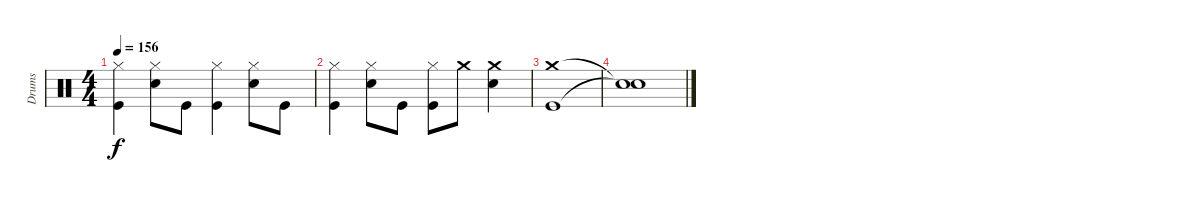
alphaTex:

\track ("Drums" "Drums") {instrument percussion}
\staff {score}
\articulation defaults
\ts (4 4)
\tempo 156
\clef neutral
\ks c
("Hi-Hat (closed)" "Kick (hit)").4{dy f} ("Hi-Hat (closed)" "Snare (hit) 2").8 "Kick (hit)".8 ("Hi-Hat (closed)" "Kick (hit)").4 ("Hi-Hat (closed)" "Snare (hit) 2").8 "Kick (hit)".8 |
("Hi-Hat (closed)" "Kick (hit)").4 ("Hi-Hat (closed)" "Snare (hit) 2").8 "Kick (hit)".8 ("Hi-Hat (closed)" "Kick (hit)").8 "Crash medium (hit)".8 ("Crash medium (hit)" "Snare (hit) 2").4 |
("Crash medium (hit)" "Kick (hit)").1 |
("Snare (hit)"{t} "Snare (hit)"{t}).1
